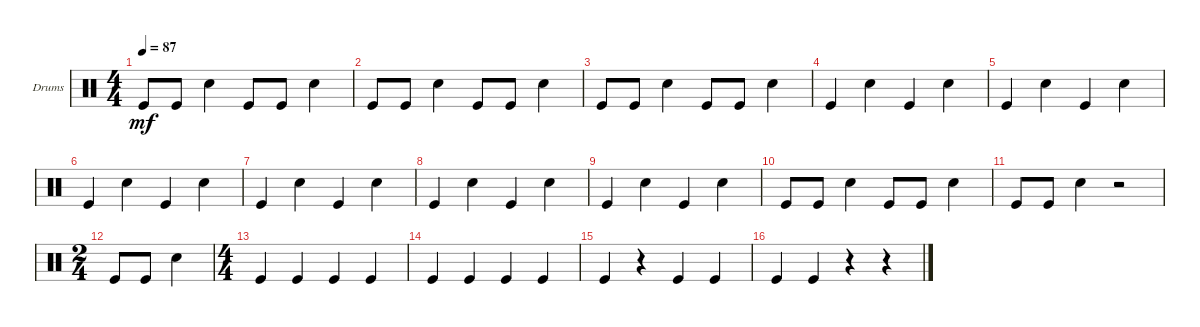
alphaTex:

\defaultSystemsLayout 4
\bracketExtendMode groupsimilarinstruments
\firstSystemTrackNameOrientation horizontal
\otherSystemsTrackNameOrientation horizontal
\track ("Body percussion (see notes)" "Drums") {instrument percussion}
\staff {score}
\articulation defaults
\ts (4 4)
\tempo 87
\clef neutral
\ks c "Kick (hit)".8{dy mf} "Kick (hit)".8 "Snare (hit) 2".4 "Kick (hit)".8 "Kick (hit)".8 "Snare (hit) 2".4
|
"Kick (hit)".8 "Kick (hit)".8 "Snare (hit) 2".4 "Kick (hit)".8 "Kick (hit)".8 "Snare (hit) 2".4 |
"Kick (hit)".8 "Kick (hit)".8 "Snare (hit) 2".4 "Kick (hit)".8 "Kick (hit)".8 "Snare (hit) 2".4 |
"Kick (hit)".4 "Snare (hit) 2".4 "Kick (hit)".4 "Snare (hit) 2".4 |
"Kick (hit)".4 "Snare (hit) 2".4 "Kick (hit)".4 "Snare (hit) 2".4 |
"Kick (hit)".4 "Snare (hit) 2".4 "Kick (hit)".4 "Snare (hit) 2".4 |
"Kick (hit)".4 "Snare (hit) 2".4 "Kick (hit)".4 "Snare (hit) 2".4 |
"Kick (hit)".4 "Snare (hit) 2".4 "Kick (hit)".4 "Snare (hit) 2".4 |
"Kick (hit)".4 "Snare (hit) 2".4 "Kick (hit)".4 "Snare (hit) 2".4 |
"Kick (hit)".8 "Kick (hit)".8 "Snare (hit) 2".4 "Kick (hit)".8 "Kick (hit)".8 "Snare (hit) 2".4 |
"Kick (hit)".8 "Kick (hit)".8 "Snare (hit) 2".4 r.2 |
\ts (2 4)
"Kick (hit)".8 "Kick (hit)".8 "Snare (hit) 2".4 |
\ts (4 4)
"Kick (hit)".4 "Kick (hit)".4 "Kick (hit)".4 "Kick (hit)".4 |
"Kick (hit)".4 "Kick (hit)".4 "Kick (hit)".4 "Kick (hit)".4 |
"Kick (hit)".4 r.4 "Kick (hit)".4 "Kick (hit)".4 |
"Kick (hit)".4 "Kick (hit)".4 r.4 r.4
